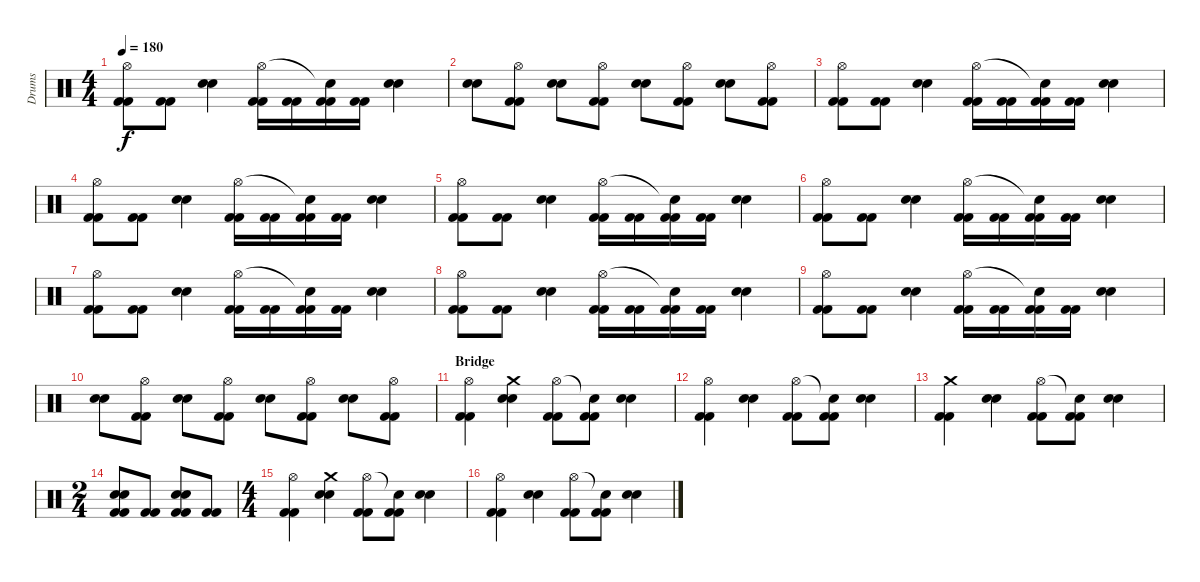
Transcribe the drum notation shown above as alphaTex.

\track ("Drums" "Drums") {instrument percussion}
\staff {score}
\articulation defaults
\ts (4 4)
\tempo 180
\clef neutral
\ks c
("Kick (hit) 2" "Kick (hit) 2" "Hi-Hat (open)").8{dy f} ("Kick (hit) 2" "Kick (hit) 2").8 ("Electric Snare (hit)" "Electric Snare (hit)").4 ("Kick (hit) 2" "Kick (hit) 2" "Hi-Hat (open)").16 ("Kick (hit) 2" "Kick (hit) 2").16 ("Kick (hit) 2" "Kick (hit) 2" "Snare (hit)"{t}).16 ("Kick (hit) 2" "Kick (hit) 2").16 ("Electric Snare (hit)" "Electric Snare (hit)").4 |
("Snare (hit) 2" "Snare (hit) 2").8 ("Kick (hit) 2" "Kick (hit) 2" "Hi-Hat (open)").8 ("Snare (hit) 2" "Snare (hit) 2").8 ("Kick (hit) 2" "Kick (hit) 2" "Hi-Hat (open)").8 ("Snare (hit) 2" "Snare (hit) 2").8 ("Kick (hit) 2" "Kick (hit) 2" "Hi-Hat (open)").8 ("Snare (hit) 2" "Snare (hit) 2").8 ("Kick (hit) 2" "Kick (hit) 2" "Hi-Hat (open)").8 |
("Kick (hit) 2" "Kick (hit) 2" "Hi-Hat (open)").8 ("Kick (hit) 2" "Kick (hit) 2").8 ("Electric Snare (hit)" "Electric Snare (hit)").4 ("Kick (hit) 2" "Kick (hit) 2" "Hi-Hat (open)").16 ("Kick (hit) 2" "Kick (hit) 2").16 ("Kick (hit) 2" "Kick (hit) 2" "Snare (hit)"{t}).16 ("Kick (hit) 2" "Kick (hit) 2").16 ("Electric Snare (hit)" "Electric Snare (hit)").4 |
("Kick (hit) 2" "Kick (hit) 2" "Hi-Hat (open)").8 ("Kick (hit) 2" "Kick (hit) 2").8 ("Electric Snare (hit)" "Electric Snare (hit)").4 ("Kick (hit) 2" "Kick (hit) 2" "Hi-Hat (open)").16 ("Kick (hit) 2" "Kick (hit) 2").16 ("Kick (hit) 2" "Kick (hit) 2" "Snare (hit)"{t}).16 ("Kick (hit) 2" "Kick (hit) 2").16 ("Electric Snare (hit)" "Electric Snare (hit)").4 |
("Kick (hit) 2" "Kick (hit) 2" "Hi-Hat (open)").8 ("Kick (hit) 2" "Kick (hit) 2").8 ("Electric Snare (hit)" "Electric Snare (hit)").4 ("Kick (hit) 2" "Kick (hit) 2" "Hi-Hat (open)").16 ("Kick (hit) 2" "Kick (hit) 2").16 ("Kick (hit) 2" "Kick (hit) 2" "Snare (hit)"{t}).16 ("Kick (hit) 2" "Kick (hit) 2").16 ("Electric Snare (hit)" "Electric Snare (hit)").4 |
("Kick (hit) 2" "Kick (hit) 2" "Hi-Hat (open)").8 ("Kick (hit) 2" "Kick (hit) 2").8 ("Electric Snare (hit)" "Electric Snare (hit)").4 ("Kick (hit) 2" "Kick (hit) 2" "Hi-Hat (open)").16 ("Kick (hit) 2" "Kick (hit) 2").16 ("Kick (hit) 2" "Kick (hit) 2" "Snare (hit)"{t}).16 ("Kick (hit) 2" "Kick (hit) 2").16 ("Electric Snare (hit)" "Electric Snare (hit)").4 |
("Kick (hit) 2" "Kick (hit) 2" "Hi-Hat (open)").8 ("Kick (hit) 2" "Kick (hit) 2").8 ("Electric Snare (hit)" "Electric Snare (hit)").4 ("Kick (hit) 2" "Kick (hit) 2" "Hi-Hat (open)").16 ("Kick (hit) 2" "Kick (hit) 2").16 ("Kick (hit) 2" "Kick (hit) 2" "Snare (hit)"{t}).16 ("Kick (hit) 2" "Kick (hit) 2").16 ("Electric Snare (hit)" "Electric Snare (hit)").4 |
("Kick (hit) 2" "Kick (hit) 2" "Hi-Hat (open)").8 ("Kick (hit) 2" "Kick (hit) 2").8 ("Electric Snare (hit)" "Electric Snare (hit)").4 ("Kick (hit) 2" "Kick (hit) 2" "Hi-Hat (open)").16 ("Kick (hit) 2" "Kick (hit) 2").16 ("Kick (hit) 2" "Kick (hit) 2" "Snare (hit)"{t}).16 ("Kick (hit) 2" "Kick (hit) 2").16 ("Electric Snare (hit)" "Electric Snare (hit)").4 |
("Kick (hit) 2" "Kick (hit) 2" "Hi-Hat (open)").8 ("Kick (hit) 2" "Kick (hit) 2").8 ("Electric Snare (hit)" "Electric Snare (hit)").4 ("Kick (hit) 2" "Kick (hit) 2" "Hi-Hat (open)").16 ("Kick (hit) 2" "Kick (hit) 2").16 ("Kick (hit) 2" "Kick (hit) 2" "Snare (hit)"{t}).16 ("Kick (hit) 2" "Kick (hit) 2").16 ("Electric Snare (hit)" "Electric Snare (hit)").4 |
("Snare (hit) 2" "Snare (hit) 2").8 ("Kick (hit) 2" "Kick (hit) 2" "Hi-Hat (open)").8 ("Snare (hit) 2" "Snare (hit) 2").8 ("Kick (hit) 2" "Kick (hit) 2" "Hi-Hat (open)").8 ("Snare (hit) 2" "Snare (hit) 2").8 ("Kick (hit) 2" "Kick (hit) 2" "Hi-Hat (open)").8 ("Snare (hit) 2" "Snare (hit) 2").8 ("Kick (hit) 2" "Kick (hit) 2" "Hi-Hat (open)").8 |
\section ("" "Bridge")
("Kick (hit) 2" "Kick (hit) 2" "Hi-Hat (open)").4 ("Electric Snare (hit)" "Electric Snare (hit)" "Crash medium (hit)").4 ("Kick (hit) 2" "Kick (hit) 2" "Hi-Hat (open)").8 ("Kick (hit) 2" "Kick (hit) 2" "Snare (hit)"{t}).8 ("Electric Snare (hit)" "Electric Snare (hit)").4 |
("Kick (hit) 2" "Kick (hit) 2" "Hi-Hat (open)").4 ("Electric Snare (hit)" "Electric Snare (hit)").4 ("Kick (hit) 2" "Kick (hit) 2" "Hi-Hat (open)").8 ("Kick (hit) 2" "Kick (hit) 2" "Snare (hit)"{t}).8 ("Electric Snare (hit)" "Electric Snare (hit)").4 |
("Kick (hit) 2" "Kick (hit) 2" "Crash medium (hit)").4 ("Electric Snare (hit)" "Electric Snare (hit)").4 ("Kick (hit) 2" "Kick (hit) 2" "Hi-Hat (open)").8 ("Kick (hit) 2" "Kick (hit) 2" "Snare (hit)"{t}).8 ("Electric Snare (hit)" "Electric Snare (hit)").4 |
\ts (2 4)
("Kick (hit) 2" "Kick (hit) 2" "Electric Snare (hit)" "Electric Snare (hit)").8 ("Kick (hit) 2" "Kick (hit) 2").8 ("Kick (hit) 2" "Kick (hit) 2" "Electric Snare (hit)" "Electric Snare (hit)").8 ("Kick (hit) 2" "Kick (hit) 2").8 |
\ts (4 4)
("Kick (hit) 2" "Kick (hit) 2" "Hi-Hat (open)").4 ("Electric Snare (hit)" "Electric Snare (hit)" "Crash medium (hit)").4 ("Kick (hit) 2" "Kick (hit) 2" "Hi-Hat (open)").8 ("Kick (hit) 2" "Kick (hit) 2" "Snare (hit)"{t}).8 ("Electric Snare (hit)" "Electric Snare (hit)").4 |
("Kick (hit) 2" "Kick (hit) 2" "Hi-Hat (open)").4 ("Electric Snare (hit)" "Electric Snare (hit)").4 ("Kick (hit) 2" "Kick (hit) 2" "Hi-Hat (open)").8 ("Kick (hit) 2" "Kick (hit) 2" "Snare (hit)"{t}).8 ("Electric Snare (hit)" "Electric Snare (hit)").4
